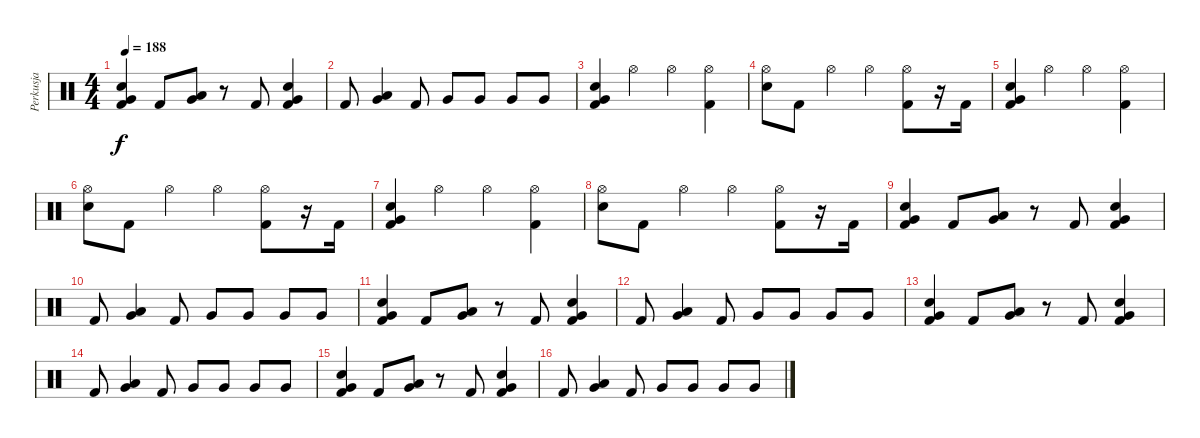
\track ("Perkusja" "Perkusja") {instrument percussion}
\staff {score}
\articulation defaults
\ts (4 4)
\tempo 188
\clef neutral
\ks c
("Very Low Tom (hit)" "Electric Snare (hit)" "Kick (hit) 2").4{dy f} "Kick (hit) 2".8 ("Low Tom (hit)" "Very Low Tom (hit)").8 r.8 "Kick (hit) 2".8 ("Very Low Tom (hit)" "Electric Snare (hit)" "Kick (hit) 2").4 |
"Kick (hit) 2".8 ("Low Tom (hit)" "Very Low Tom (hit)").4 "Kick (hit) 2".8 "Very Low Tom (hit)".8 "Very Low Tom (hit)".8 "Very Low Tom (hit)".8 "Very Low Tom (hit)".8 |
("Very Low Tom (hit)" "Electric Snare (hit)" "Kick (hit) 2").4 "Hi-Hat (open)".4 "Hi-Hat (open)".4 ("Hi-Hat (open)" "Kick (hit) 2").4 |
("Hi-Hat (open)" "Electric Snare (hit)").8 "Kick (hit) 2".8 "Hi-Hat (open)".4 "Hi-Hat (open)".4 ("Hi-Hat (open)" "Kick (hit) 2").8 r.16 "Kick (hit) 2".16 |
("Very Low Tom (hit)" "Electric Snare (hit)" "Kick (hit) 2").4 "Hi-Hat (open)".4 "Hi-Hat (open)".4 ("Hi-Hat (open)" "Kick (hit) 2").4 |
("Hi-Hat (open)" "Electric Snare (hit)").8 "Kick (hit) 2".8 "Hi-Hat (open)".4 "Hi-Hat (open)".4 ("Hi-Hat (open)" "Kick (hit) 2").8 r.16 "Kick (hit) 2".16 |
("Very Low Tom (hit)" "Electric Snare (hit)" "Kick (hit) 2").4 "Hi-Hat (open)".4 "Hi-Hat (open)".4 ("Hi-Hat (open)" "Kick (hit) 2").4 |
("Hi-Hat (open)" "Electric Snare (hit)").8 "Kick (hit) 2".8 "Hi-Hat (open)".4 "Hi-Hat (open)".4 ("Hi-Hat (open)" "Kick (hit) 2").8 r.16 "Kick (hit) 2".16 |
("Very Low Tom (hit)" "Electric Snare (hit)" "Kick (hit) 2").4 "Kick (hit) 2".8 ("Low Tom (hit)" "Very Low Tom (hit)").8 r.8 "Kick (hit) 2".8 ("Very Low Tom (hit)" "Electric Snare (hit)" "Kick (hit) 2").4 |
"Kick (hit) 2".8 ("Low Tom (hit)" "Very Low Tom (hit)").4 "Kick (hit) 2".8 "Very Low Tom (hit)".8 "Very Low Tom (hit)".8 "Very Low Tom (hit)".8 "Very Low Tom (hit)".8 |
("Very Low Tom (hit)" "Electric Snare (hit)" "Kick (hit) 2").4 "Kick (hit) 2".8 ("Low Tom (hit)" "Very Low Tom (hit)").8 r.8 "Kick (hit) 2".8 ("Very Low Tom (hit)" "Electric Snare (hit)" "Kick (hit) 2").4 |
"Kick (hit) 2".8 ("Low Tom (hit)" "Very Low Tom (hit)").4 "Kick (hit) 2".8 "Very Low Tom (hit)".8 "Very Low Tom (hit)".8 "Very Low Tom (hit)".8 "Very Low Tom (hit)".8 |
("Very Low Tom (hit)" "Electric Snare (hit)" "Kick (hit) 2").4 "Kick (hit) 2".8 ("Low Tom (hit)" "Very Low Tom (hit)").8 r.8 "Kick (hit) 2".8 ("Very Low Tom (hit)" "Electric Snare (hit)" "Kick (hit) 2").4 |
"Kick (hit) 2".8 ("Low Tom (hit)" "Very Low Tom (hit)").4 "Kick (hit) 2".8 "Very Low Tom (hit)".8 "Very Low Tom (hit)".8 "Very Low Tom (hit)".8 "Very Low Tom (hit)".8 |
("Very Low Tom (hit)" "Electric Snare (hit)" "Kick (hit) 2").4 "Kick (hit) 2".8 ("Low Tom (hit)" "Very Low Tom (hit)").8 r.8 "Kick (hit) 2".8 ("Very Low Tom (hit)" "Electric Snare (hit)" "Kick (hit) 2").4 |
"Kick (hit) 2".8 ("Low Tom (hit)" "Very Low Tom (hit)").4 "Kick (hit) 2".8 "Very Low Tom (hit)".8 "Very Low Tom (hit)".8 "Very Low Tom (hit)".8 "Very Low Tom (hit)".8
